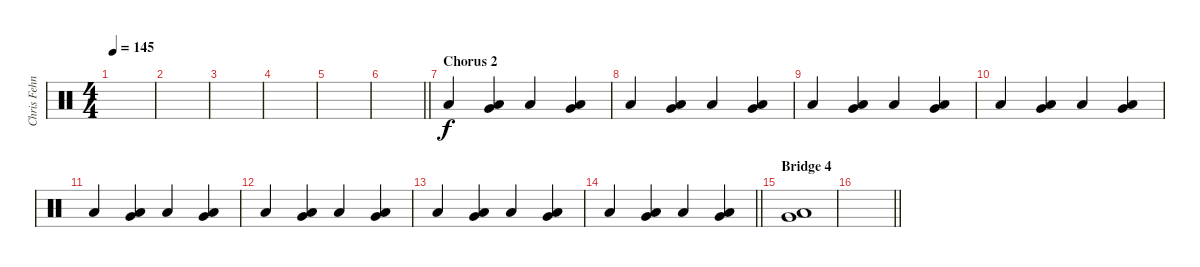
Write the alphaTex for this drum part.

\track ("Chris Fehn" "Chris Fehn") {instrument percussion}
\staff {score}
\articulation defaults
\ts (4 4)
\tempo 145
\clef neutral
\ks c
|
|
|
|
|
\barLineRight lightlight
|
\section ("" "Chorus 2")
"Low Floor Tom (hit)".4{dy f} ("Very Low Tom (hit)" "Low Floor Tom (hit)").4 "Low Floor Tom (hit)".4 ("Very Low Tom (hit)" "Low Floor Tom (hit)").4 |
"Low Floor Tom (hit)".4 ("Very Low Tom (hit)" "Low Floor Tom (hit)").4 "Low Floor Tom (hit)".4 ("Very Low Tom (hit)" "Low Floor Tom (hit)").4 |
"Low Floor Tom (hit)".4 ("Very Low Tom (hit)" "Low Floor Tom (hit)").4 "Low Floor Tom (hit)".4 ("Very Low Tom (hit)" "Low Floor Tom (hit)").4 |
"Low Floor Tom (hit)".4 ("Very Low Tom (hit)" "Low Floor Tom (hit)").4 "Low Floor Tom (hit)".4 ("Very Low Tom (hit)" "Low Floor Tom (hit)").4 |
"Low Floor Tom (hit)".4 ("Very Low Tom (hit)" "Low Floor Tom (hit)").4 "Low Floor Tom (hit)".4 ("Very Low Tom (hit)" "Low Floor Tom (hit)").4 |
"Low Floor Tom (hit)".4 ("Very Low Tom (hit)" "Low Floor Tom (hit)").4 "Low Floor Tom (hit)".4 ("Very Low Tom (hit)" "Low Floor Tom (hit)").4 |
"Low Floor Tom (hit)".4 ("Very Low Tom (hit)" "Low Floor Tom (hit)").4 "Low Floor Tom (hit)".4 ("Very Low Tom (hit)" "Low Floor Tom (hit)").4 |
\barLineRight lightlight "Low Floor Tom (hit)".4
("Very Low Tom (hit)" "Low Floor Tom (hit)").4 "Low Floor Tom (hit)".4 ("Very Low Tom (hit)" "Low Floor Tom (hit)").4 |
\section ("" "Bridge 4")
("Very Low Tom (hit)" "Low Floor Tom (hit)").1 |
\barLineRight lightlight
